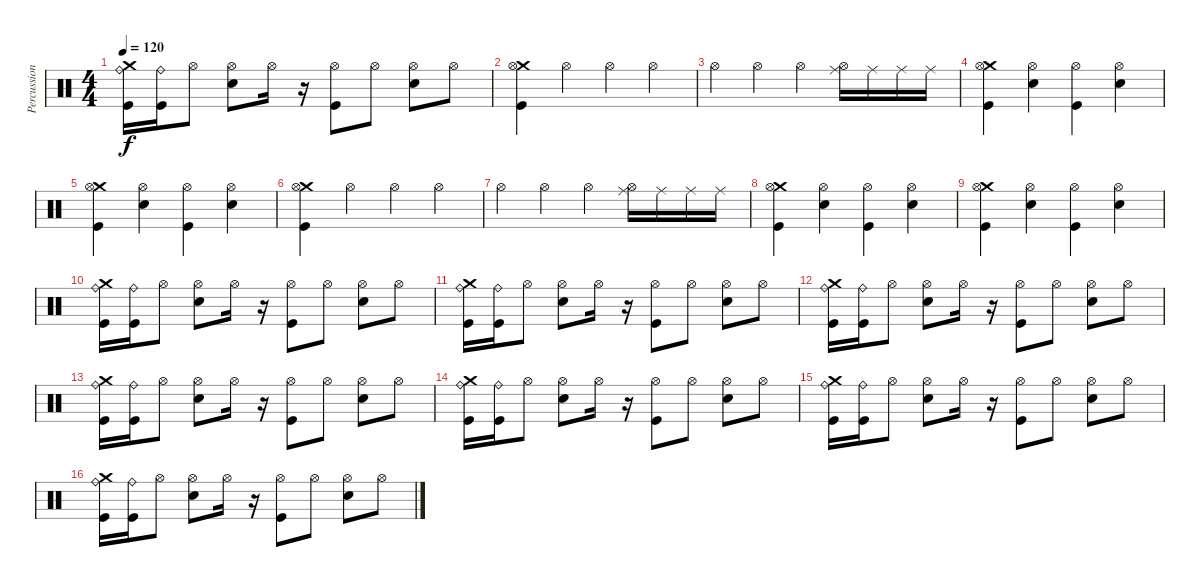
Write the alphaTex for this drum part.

\track ("Percussion" "Percussion") {instrument percussion}
\staff {score}
\articulation defaults
\ts (4 4)
\tempo 120
\clef neutral
\ks c
("Kick (hit)" "Ride (bell)" "Crash medium (hit)").16{dy f} ("Kick (hit)" "Ride (bell)").16 "Hi-Hat (open)".8 ("Hi-Hat (open)" "Electric Snare (hit)").8 "Hi-Hat (open)".16 r.16 ("Kick (hit)" "Hi-Hat (open)").8 "Hi-Hat (open)".8 ("Hi-Hat (open)" "Electric Snare (hit)").8 "Hi-Hat (open)".8 |
("Crash medium (hit)" "Hi-Hat (open)" "Kick (hit)").4 "Hi-Hat (open)".4 "Hi-Hat (open)".4 "Hi-Hat (open)".4 |
"Hi-Hat (open)".4 "Hi-Hat (open)".4 "Hi-Hat (open)".4 ("Ride (middle)" "Hi-Hat (open)").16 "Ride (middle)".16 "Ride (middle)".16 "Ride (middle)".16 |
("Crash medium (hit)" "Hi-Hat (open)" "Kick (hit)").4 ("Hi-Hat (open)" "Electric Snare (hit)").4 ("Hi-Hat (open)" "Kick (hit)").4 ("Hi-Hat (open)" "Electric Snare (hit)").4 |
("Crash medium (hit)" "Hi-Hat (open)" "Kick (hit)").4 ("Hi-Hat (open)" "Electric Snare (hit)").4 ("Hi-Hat (open)" "Kick (hit)").4 ("Hi-Hat (open)" "Electric Snare (hit)").4 |
("Crash medium (hit)" "Hi-Hat (open)" "Kick (hit)").4 "Hi-Hat (open)".4 "Hi-Hat (open)".4 "Hi-Hat (open)".4 |
"Hi-Hat (open)".4 "Hi-Hat (open)".4 "Hi-Hat (open)".4 ("Ride (middle)" "Hi-Hat (open)").16 "Ride (middle)".16 "Ride (middle)".16 "Ride (middle)".16 |
("Crash medium (hit)" "Hi-Hat (open)" "Kick (hit)").4 ("Hi-Hat (open)" "Electric Snare (hit)").4 ("Hi-Hat (open)" "Kick (hit)").4 ("Hi-Hat (open)" "Electric Snare (hit)").4 |
("Crash medium (hit)" "Hi-Hat (open)" "Kick (hit)").4 ("Hi-Hat (open)" "Electric Snare (hit)").4 ("Hi-Hat (open)" "Kick (hit)").4 ("Hi-Hat (open)" "Electric Snare (hit)").4 |
("Kick (hit)" "Ride (bell)" "Crash medium (hit)").16 ("Kick (hit)" "Ride (bell)").16 "Hi-Hat (open)".8 ("Hi-Hat (open)" "Electric Snare (hit)").8 "Hi-Hat (open)".16 r.16 ("Kick (hit)" "Hi-Hat (open)").8 "Hi-Hat (open)".8 ("Hi-Hat (open)" "Electric Snare (hit)").8 "Hi-Hat (open)".8 |
("Kick (hit)" "Ride (bell)" "Crash medium (hit)").16 ("Kick (hit)" "Ride (bell)").16 "Hi-Hat (open)".8 ("Hi-Hat (open)" "Electric Snare (hit)").8 "Hi-Hat (open)".16 r.16 ("Kick (hit)" "Hi-Hat (open)").8 "Hi-Hat (open)".8 ("Hi-Hat (open)" "Electric Snare (hit)").8 "Hi-Hat (open)".8 |
("Kick (hit)" "Ride (bell)" "Crash medium (hit)").16 ("Kick (hit)" "Ride (bell)").16 "Hi-Hat (open)".8 ("Hi-Hat (open)" "Electric Snare (hit)").8 "Hi-Hat (open)".16 r.16 ("Kick (hit)" "Hi-Hat (open)").8 "Hi-Hat (open)".8 ("Hi-Hat (open)" "Electric Snare (hit)").8 "Hi-Hat (open)".8 |
("Kick (hit)" "Ride (bell)" "Crash medium (hit)").16 ("Kick (hit)" "Ride (bell)").16 "Hi-Hat (open)".8 ("Hi-Hat (open)" "Electric Snare (hit)").8 "Hi-Hat (open)".16 r.16 ("Kick (hit)" "Hi-Hat (open)").8 "Hi-Hat (open)".8 ("Hi-Hat (open)" "Electric Snare (hit)").8 "Hi-Hat (open)".8 |
("Kick (hit)" "Ride (bell)" "Crash medium (hit)").16 ("Kick (hit)" "Ride (bell)").16 "Hi-Hat (open)".8 ("Hi-Hat (open)" "Electric Snare (hit)").8 "Hi-Hat (open)".16 r.16 ("Kick (hit)" "Hi-Hat (open)").8 "Hi-Hat (open)".8 ("Hi-Hat (open)" "Electric Snare (hit)").8 "Hi-Hat (open)".8 |
("Kick (hit)" "Ride (bell)" "Crash medium (hit)").16 ("Kick (hit)" "Ride (bell)").16 "Hi-Hat (open)".8 ("Hi-Hat (open)" "Electric Snare (hit)").8 "Hi-Hat (open)".16 r.16 ("Kick (hit)" "Hi-Hat (open)").8 "Hi-Hat (open)".8 ("Hi-Hat (open)" "Electric Snare (hit)").8 "Hi-Hat (open)".8 |
("Kick (hit)" "Ride (bell)" "Crash medium (hit)").16 ("Kick (hit)" "Ride (bell)").16 "Hi-Hat (open)".8 ("Hi-Hat (open)" "Electric Snare (hit)").8 "Hi-Hat (open)".16 r.16 ("Kick (hit)" "Hi-Hat (open)").8 "Hi-Hat (open)".8 ("Hi-Hat (open)" "Electric Snare (hit)").8 "Hi-Hat (open)".8
